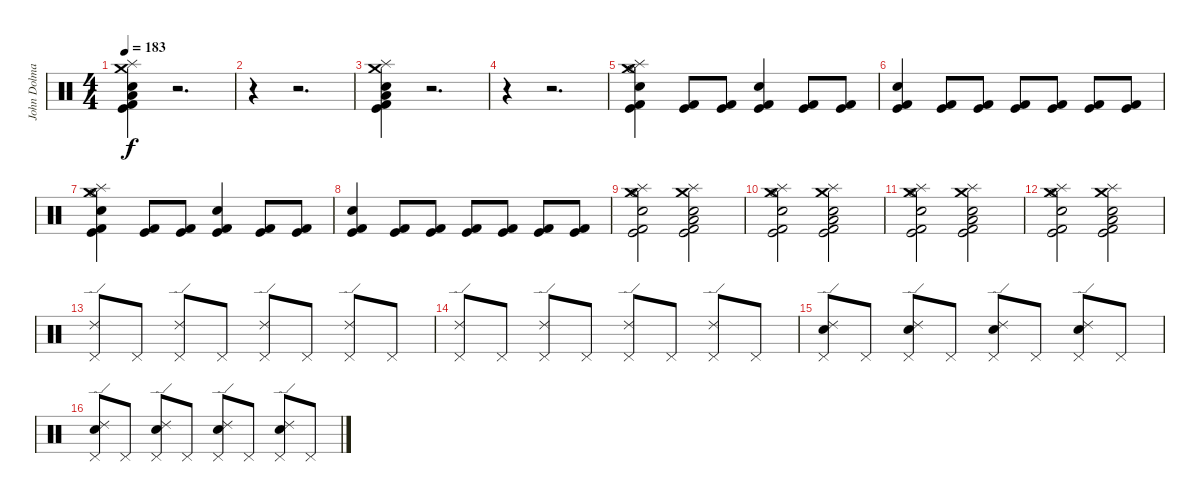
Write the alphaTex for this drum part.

\track ("John Dolmayan" "John Dolma") {instrument percussion}
\staff {score}
\articulation defaults
\ts (4 4)
\tempo 183
\clef neutral
\ks c
("Crash medium (hit)" "Kick (hit) 2" "Kick (hit)" "Electric Snare (hit)" "Low Tom (hit)" "Splash (hit)").4{dy f} r.2{d} |
r.4 r.2{d} |
("Crash medium (hit)" "Kick (hit) 2" "Kick (hit)" "Electric Snare (hit)" "Low Tom (hit)" "Splash (hit)").4 r.2{d} |
r.4 r.2{d} |
("Hi-Hat (open)" "Crash medium (hit)" "Splash (hit)" "Kick (hit)" "Kick (hit) 2" "Electric Snare (hit)").4 ("Kick (hit) 2" "Kick (hit)").8 ("Kick (hit) 2" "Kick (hit)").8 ("Kick (hit) 2" "Kick (hit)" "Electric Snare (hit)").4 ("Kick (hit) 2" "Kick (hit)").8 ("Kick (hit) 2" "Kick (hit)").8 |
("Kick (hit) 2" "Kick (hit)" "Electric Snare (hit)").4 ("Kick (hit) 2" "Kick (hit)").8 ("Kick (hit) 2" "Kick (hit)").8 ("Kick (hit) 2" "Kick (hit)").8 ("Kick (hit) 2" "Kick (hit)").8 ("Kick (hit) 2" "Kick (hit)").8 ("Kick (hit) 2" "Kick (hit)").8 |
("Hi-Hat (open)" "Crash medium (hit)" "Splash (hit)" "Kick (hit)" "Kick (hit) 2" "Electric Snare (hit)").4 ("Kick (hit) 2" "Kick (hit)").8 ("Kick (hit) 2" "Kick (hit)").8 ("Kick (hit) 2" "Kick (hit)" "Electric Snare (hit)").4 ("Kick (hit) 2" "Kick (hit)").8 ("Kick (hit) 2" "Kick (hit)").8 |
("Kick (hit) 2" "Kick (hit)" "Electric Snare (hit)").4 ("Kick (hit) 2" "Kick (hit)").8 ("Kick (hit) 2" "Kick (hit)").8 ("Kick (hit) 2" "Kick (hit)").8 ("Kick (hit) 2" "Kick (hit)").8 ("Kick (hit) 2" "Kick (hit)").8 ("Kick (hit) 2" "Kick (hit)").8 |
("Hi-Hat (open)" "Crash medium (hit)" "Splash (hit)" "Kick (hit)" "Kick (hit) 2" "Electric Snare (hit)").2 ("Splash (hit)" "Crash medium (hit)" "Kick (hit) 2" "Kick (hit)" "Low Tom (hit)" "Electric Snare (hit)").2 |
("Hi-Hat (open)" "Crash medium (hit)" "Splash (hit)" "Kick (hit)" "Kick (hit) 2" "Electric Snare (hit)").2 ("Splash (hit)" "Crash medium (hit)" "Kick (hit) 2" "Kick (hit)" "Low Tom (hit)" "Electric Snare (hit)").2 |
("Hi-Hat (open)" "Crash medium (hit)" "Splash (hit)" "Kick (hit)" "Kick (hit) 2" "Electric Snare (hit)").2 ("Splash (hit)" "Crash medium (hit)" "Kick (hit) 2" "Kick (hit)" "Low Tom (hit)" "Electric Snare (hit)").2 |
("Hi-Hat (open)" "Crash medium (hit)" "Splash (hit)" "Kick (hit)" "Kick (hit) 2" "Electric Snare (hit)").2 ("Splash (hit)" "Crash medium (hit)" "Kick (hit) 2" "Kick (hit)" "Low Tom (hit)" "Electric Snare (hit)").2 |
("Pedal Hi-Hat (hit)" "Ride (edge) 2").8 "Pedal Hi-Hat (hit)".8 ("Pedal Hi-Hat (hit)" "Ride (edge) 2").8 "Pedal Hi-Hat (hit)".8 ("Pedal Hi-Hat (hit)" "Ride (edge) 2").8 "Pedal Hi-Hat (hit)".8 ("Pedal Hi-Hat (hit)" "Ride (edge) 2").8 "Pedal Hi-Hat (hit)".8 |
("Pedal Hi-Hat (hit)" "Ride (edge) 2").8 "Pedal Hi-Hat (hit)".8 ("Pedal Hi-Hat (hit)" "Ride (edge) 2").8 "Pedal Hi-Hat (hit)".8 ("Pedal Hi-Hat (hit)" "Ride (edge) 2").8 "Pedal Hi-Hat (hit)".8 ("Pedal Hi-Hat (hit)" "Ride (edge) 2").8 "Pedal Hi-Hat (hit)".8 |
("Pedal Hi-Hat (hit)" "Ride (edge) 2" "Electric Snare (hit)").8 "Pedal Hi-Hat (hit)".8 ("Pedal Hi-Hat (hit)" "Ride (edge) 2" "Electric Snare (hit)").8 "Pedal Hi-Hat (hit)".8 ("Pedal Hi-Hat (hit)" "Ride (edge) 2" "Electric Snare (hit)").8 "Pedal Hi-Hat (hit)".8 ("Pedal Hi-Hat (hit)" "Ride (edge) 2" "Electric Snare (hit)").8 "Pedal Hi-Hat (hit)".8 |
("Pedal Hi-Hat (hit)" "Ride (edge) 2" "Electric Snare (hit)").8 "Pedal Hi-Hat (hit)".8 ("Pedal Hi-Hat (hit)" "Ride (edge) 2" "Electric Snare (hit)").8 "Pedal Hi-Hat (hit)".8 ("Pedal Hi-Hat (hit)" "Ride (edge) 2" "Electric Snare (hit)").8 "Pedal Hi-Hat (hit)".8 ("Pedal Hi-Hat (hit)" "Ride (edge) 2" "Electric Snare (hit)").8 "Pedal Hi-Hat (hit)".8
